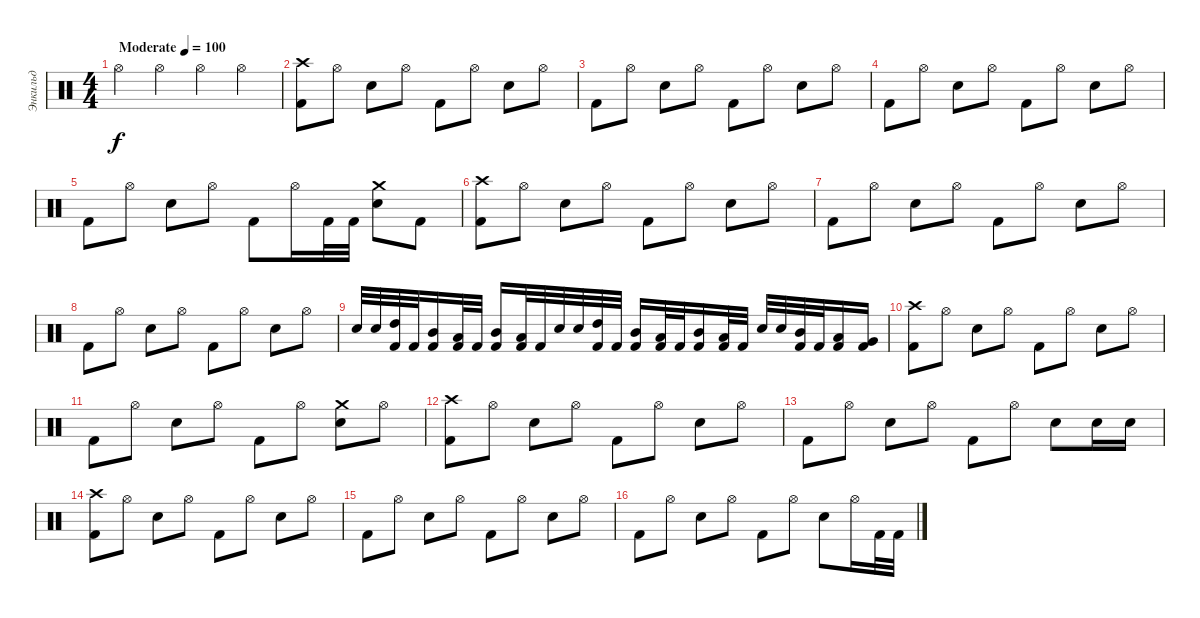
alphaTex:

\track ("Энкильд" "Энкильд") {instrument percussion}
\staff {score}
\articulation defaults
\ts (4 4)
\tempo (100 "Moderate")
\clef neutral
\ks c "Hi-Hat (open)".4{dy f} "Hi-Hat (open)".4 "Hi-Hat (open)".4 "Hi-Hat (open)".4
|
("Crash high (hit)" "Kick (hit) 2").8 "Hi-Hat (open)".8 "Snare (hit) 2".8 "Hi-Hat (open)".8 "Kick (hit) 2".8 "Hi-Hat (open)".8 "Snare (hit) 2".8 "Hi-Hat (open)".8 |
"Kick (hit) 2".8 "Hi-Hat (open)".8 "Snare (hit) 2".8 "Hi-Hat (open)".8 "Kick (hit) 2".8 "Hi-Hat (open)".8 "Snare (hit) 2".8 "Hi-Hat (open)".8 |
"Kick (hit) 2".8 "Hi-Hat (open)".8 "Snare (hit) 2".8 "Hi-Hat (open)".8 "Kick (hit) 2".8 "Hi-Hat (open)".8 "Snare (hit) 2".8 "Hi-Hat (open)".8 |
"Kick (hit) 2".8 "Hi-Hat (open)".8 "Snare (hit) 2".8 "Hi-Hat (open)".8 "Kick (hit) 2".8 "Hi-Hat (open)".16 "Kick (hit) 2".32 "Kick (hit) 2".32 ("Crash medium (hit)" "Snare (hit) 2").8 "Kick (hit) 2".8 |
("Crash high (hit)" "Kick (hit) 2").8 "Hi-Hat (open)".8 "Snare (hit) 2".8 "Hi-Hat (open)".8 "Kick (hit) 2".8 "Hi-Hat (open)".8 "Snare (hit) 2".8 "Hi-Hat (open)".8 |
"Kick (hit) 2".8 "Hi-Hat (open)".8 "Snare (hit) 2".8 "Hi-Hat (open)".8 "Kick (hit) 2".8 "Hi-Hat (open)".8 "Snare (hit) 2".8 "Hi-Hat (open)".8 |
"Kick (hit) 2".8 "Hi-Hat (open)".8 "Snare (hit) 2".8 "Hi-Hat (open)".8 "Kick (hit) 2".8 "Hi-Hat (open)".8 "Snare (hit) 2".8 "Hi-Hat (open)".8 |
"Snare (hit) 2".32 "Snare (hit) 2".32 ("High Tom (hit)" "Kick (hit) 2").32 "Kick (hit) 2".32 ("Mid Tom (hit)" "Kick (hit) 2").16 ("Low Tom (hit)" "Kick (hit) 2").32 "Kick (hit) 2".32 ("Mid Tom (hit)" "Kick (hit) 2").16 ("Kick (hit) 2" "Low Tom (hit)").32 "Kick (hit) 2".32 "Snare (hit) 2".32 "Snare (hit) 2".32 ("High Tom (hit)" "Kick (hit) 2").32 "Kick (hit) 2".32 ("Mid Tom (hit)" "Kick (hit) 2").16 ("Low Tom (hit)" "Kick (hit) 2").32 "Kick (hit) 2".32 ("Mid Tom (hit)" "Kick (hit) 2").16 ("Kick (hit) 2" "Low Tom (hit)").32 "Kick (hit) 2".32 "Snare (hit) 2".32 "Snare (hit) 2".32 ("Mid Tom (hit)" "Kick (hit) 2").32 "Kick (hit) 2".32 ("Low Tom (hit)" "Kick (hit) 2").16 ("Very Low Tom (hit)" "Kick (hit) 2").16 |
("Crash high (hit)" "Kick (hit) 2").8 "Hi-Hat (open)".8 "Snare (hit) 2".8 "Hi-Hat (open)".8 "Kick (hit) 2".8 "Hi-Hat (open)".8 "Snare (hit) 2".8 "Hi-Hat (open)".8 |
"Kick (hit) 2".8 "Hi-Hat (open)".8 "Snare (hit) 2".8 "Hi-Hat (open)".8 "Kick (hit) 2".8 "Hi-Hat (open)".8 ("Crash medium (hit)" "Snare (hit) 2").8 "Hi-Hat (open)".8 |
("Crash high (hit)" "Kick (hit) 2").8 "Hi-Hat (open)".8 "Snare (hit) 2".8 "Hi-Hat (open)".8 "Kick (hit) 2".8 "Hi-Hat (open)".8 "Snare (hit) 2".8 "Hi-Hat (open)".8 |
"Kick (hit) 2".8 "Hi-Hat (open)".8 "Snare (hit) 2".8 "Hi-Hat (open)".8 "Kick (hit) 2".8 "Hi-Hat (open)".8 "Snare (hit) 2".8 "Snare (hit) 2".16 "Snare (hit) 2".16 |
("Crash high (hit)" "Kick (hit) 2").8 "Hi-Hat (open)".8 "Snare (hit) 2".8 "Hi-Hat (open)".8 "Kick (hit) 2".8 "Hi-Hat (open)".8 "Snare (hit) 2".8 "Hi-Hat (open)".8 |
"Kick (hit) 2".8 "Hi-Hat (open)".8 "Snare (hit) 2".8 "Hi-Hat (open)".8 "Kick (hit) 2".8 "Hi-Hat (open)".8 "Snare (hit) 2".8 "Hi-Hat (open)".8 |
"Kick (hit) 2".8 "Hi-Hat (open)".8 "Snare (hit) 2".8 "Hi-Hat (open)".8 "Kick (hit) 2".8 "Hi-Hat (open)".8 "Snare (hit) 2".8 "Hi-Hat (open)".16 "Kick (hit) 2".32 "Kick (hit) 2".32
